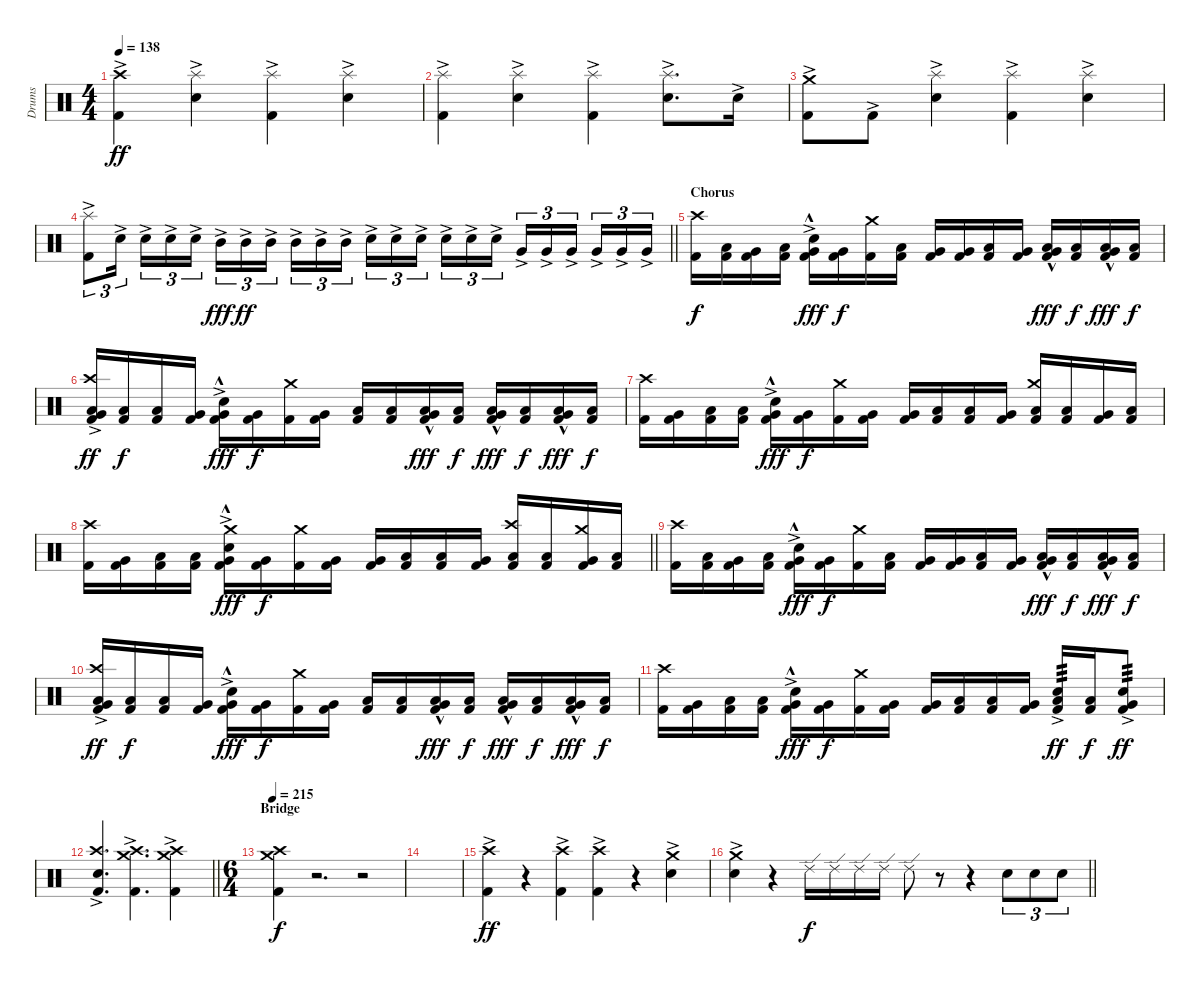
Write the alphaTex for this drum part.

\track ("Drums" "Drums") {instrument percussion}
\staff {score}
\articulation defaults
\ts (4 4)
\section ("" "")
\tempo 138
\clef neutral
\ks c
("Kick (hit) 2"{ac} "Crash high (hit)").4{dy ff} ("Snare (hit) 2"{ac} "Splash (hit)").4 ("Kick (hit) 2"{ac} "Splash (hit)").4 ("Snare (hit) 2"{ac} "Splash (hit)").4 |
("Kick (hit) 2"{ac} "Splash (hit)").4 ("Snare (hit) 2"{ac} "Splash (hit)").4 ("Kick (hit) 2"{ac} "Splash (hit)").4 ("Snare (hit) 2"{ac} "Splash (hit)").8{d} "Snare (hit) 2"{ac}.16 |
("Kick (hit) 2"{ac} "Crash medium (hit)").8 "Kick (hit) 2"{ac}.8 ("Snare (hit) 2"{ac} "Splash (hit)").4 ("Kick (hit) 2"{ac} "Splash (hit)").4 ("Snare (hit) 2"{ac} "Splash (hit)").4 |
\barLineRight lightlight
("Kick (hit) 2"{ac} "Splash (hit)").8{tu (3 2)} "Snare (hit) 2"{ac}.16{tu (3 2) beam splitsecondary} "Snare (hit) 2"{ac}.16{tu (3 2)} "Snare (hit) 2"{ac}.16{tu (3 2)} "Snare (hit) 2"{ac}.16{tu (3 2)} "Mid Tom (hit)"{ac}.16{tu (3 2) dy fff} "Mid Tom (hit)"{ac}.16{tu (3 2) dy ff} "Mid Tom (hit)"{ac}.16{tu (3 2) beam splitsecondary} "Mid Tom (hit)"{ac}.16{tu (3 2)} "Mid Tom (hit)"{ac}.16{tu (3 2)} "Mid Tom (hit)"{ac}.16{tu (3 2)} "Snare (hit) 2"{ac}.16{tu (3 2)} "Snare (hit) 2"{ac}.16{tu (3 2)} "Snare (hit) 2"{ac}.16{tu (3 2) beam splitsecondary} "Snare (hit) 2"{ac}.16{tu (3 2)} "Snare (hit) 2"{ac}.16{tu (3 2)} "Snare (hit) 2"{ac}.16{tu (3 2)} "Very Low Tom (hit)"{ac}.16{tu (3 2)} "Very Low Tom (hit)"{ac}.16{tu (3 2)} "Very Low Tom (hit)"{ac}.16{tu (3 2) beam splitsecondary} "Very Low Tom (hit)"{ac}.16{tu (3 2)} "Very Low Tom (hit)"{ac}.16{tu (3 2)} "Very Low Tom (hit)"{ac}.16{tu (3 2)} |
\section ("" "Chorus")
("Kick (hit) 2" "Crash high (hit)").16{dy f} ("Kick (hit) 2" "Low Floor Tom (hit)").16 ("Kick (hit) 2" "Very Low Tom (hit)").16 ("Kick (hit) 2" "Low Floor Tom (hit)").16 ("Kick (hit) 2" "Snare (hit) 2"{ac} "Very Low Tom (hit)"{hac}).16{dy fff} ("Kick (hit) 2" "Very Low Tom (hit)").16{dy f} ("Kick (hit) 2" "Crash medium (hit)").16 ("Kick (hit) 2" "Low Floor Tom (hit)").16 ("Kick (hit) 2" "Very Low Tom (hit)").16 ("Kick (hit) 2" "Very Low Tom (hit)").16 ("Kick (hit) 2" "Low Floor Tom (hit)").16 ("Kick (hit) 2" "Very Low Tom (hit)").16 ("Kick (hit) 2" "Very Low Tom (hit)"{hac} "Low Tom (hit)"{hac}).16{dy fff} ("Kick (hit) 2" "Low Floor Tom (hit)").16{dy f} ("Kick (hit) 2" "Very Low Tom (hit)"{hac} "Low Tom (hit)"{hac}).16{dy fff} ("Kick (hit) 2" "Low Floor Tom (hit)").16{dy f} |
("Kick (hit) 2" "Very Low Tom (hit)"{ac} "Low Floor Tom (hit)"{ac} "Crash high (hit)").16{dy ff} ("Kick (hit) 2" "Low Floor Tom (hit)").16{dy f} ("Kick (hit) 2" "Low Floor Tom (hit)").16 ("Kick (hit) 2" "Very Low Tom (hit)").16 ("Kick (hit) 2" "Snare (hit) 2"{ac} "Very Low Tom (hit)"{hac}).16{dy fff} ("Kick (hit) 2" "Very Low Tom (hit)").16{dy f} ("Kick (hit) 2" "Crash medium (hit)").16 ("Kick (hit) 2" "Very Low Tom (hit)").16 ("Kick (hit) 2" "Low Floor Tom (hit)").16 ("Kick (hit) 2" "Low Floor Tom (hit)").16 ("Kick (hit) 2" "Very Low Tom (hit)"{hac} "Low Tom (hit)"{hac}).16{dy fff} ("Kick (hit) 2" "Low Floor Tom (hit)").16{dy f} ("Kick (hit) 2" "Very Low Tom (hit)"{hac} "Low Tom (hit)"{hac}).16{dy fff} ("Kick (hit) 2" "Low Floor Tom (hit)").16{dy f} ("Kick (hit) 2" "Very Low Tom (hit)"{hac} "Low Tom (hit)"{hac}).16{dy fff} ("Kick (hit) 2" "Low Floor Tom (hit)").16{dy f} |
("Kick (hit) 2" "Crash high (hit)").16 ("Kick (hit) 2" "Very Low Tom (hit)").16 ("Kick (hit) 2" "Low Floor Tom (hit)").16 ("Kick (hit) 2" "Low Floor Tom (hit)").16 ("Kick (hit) 2" "Snare (hit) 2"{ac} "Very Low Tom (hit)"{hac}).16{dy fff} ("Kick (hit) 2" "Very Low Tom (hit)").16{dy f} ("Kick (hit) 2" "Crash medium (hit)").16 ("Kick (hit) 2" "Very Low Tom (hit)").16 ("Kick (hit) 2" "Very Low Tom (hit)").16 ("Kick (hit) 2" "Low Floor Tom (hit)").16 ("Kick (hit) 2" "Low Floor Tom (hit)").16 ("Kick (hit) 2" "Very Low Tom (hit)").16 ("Kick (hit) 2" "Low Tom (hit)" "Crash medium (hit)").16 ("Kick (hit) 2" "Low Floor Tom (hit)").16 ("Kick (hit) 2" "Very Low Tom (hit)").16 ("Kick (hit) 2" "Low Floor Tom (hit)").16 |
\barLineRight lightlight
("Kick (hit) 2" "Crash high (hit)").16 ("Kick (hit) 2" "Very Low Tom (hit)").16 ("Kick (hit) 2" "Low Floor Tom (hit)").16 ("Kick (hit) 2" "Low Floor Tom (hit)").16 ("Kick (hit) 2" "Snare (hit) 2"{ac} "Very Low Tom (hit)"{hac} "Crash medium (hit)").16{dy fff} ("Kick (hit) 2" "Very Low Tom (hit)").16{dy f} ("Kick (hit) 2" "Crash medium (hit)").16 ("Kick (hit) 2" "Very Low Tom (hit)").16 ("Kick (hit) 2" "Very Low Tom (hit)").16 ("Kick (hit) 2" "Low Floor Tom (hit)").16 ("Kick (hit) 2" "Low Floor Tom (hit)").16 ("Kick (hit) 2" "Very Low Tom (hit)").16 ("Kick (hit) 2" "Low Tom (hit)" "Crash high (hit)").16 ("Kick (hit) 2" "Low Floor Tom (hit)").16 ("Kick (hit) 2" "Very Low Tom (hit)" "Crash medium (hit)").16 ("Kick (hit) 2" "Low Floor Tom (hit)").16 |
\section ("" "")
("Kick (hit) 2" "Crash high (hit)").16 ("Kick (hit) 2" "Low Floor Tom (hit)").16 ("Kick (hit) 2" "Very Low Tom (hit)").16 ("Kick (hit) 2" "Low Floor Tom (hit)").16 ("Kick (hit) 2" "Snare (hit) 2"{ac} "Very Low Tom (hit)"{hac}).16{dy fff} ("Kick (hit) 2" "Very Low Tom (hit)").16{dy f} ("Kick (hit) 2" "Crash medium (hit)").16 ("Kick (hit) 2" "Low Floor Tom (hit)").16 ("Kick (hit) 2" "Very Low Tom (hit)").16 ("Kick (hit) 2" "Very Low Tom (hit)").16 ("Kick (hit) 2" "Low Floor Tom (hit)").16 ("Kick (hit) 2" "Very Low Tom (hit)").16 ("Kick (hit) 2" "Very Low Tom (hit)"{hac} "Low Tom (hit)"{hac}).16{dy fff} ("Kick (hit) 2" "Low Floor Tom (hit)").16{dy f} ("Kick (hit) 2" "Very Low Tom (hit)"{hac} "Low Tom (hit)"{hac}).16{dy fff} ("Kick (hit) 2" "Low Floor Tom (hit)").16{dy f} |
("Kick (hit) 2" "Very Low Tom (hit)"{ac} "Low Floor Tom (hit)"{ac} "Crash high (hit)").16{dy ff} ("Kick (hit) 2" "Low Floor Tom (hit)").16{dy f} ("Kick (hit) 2" "Low Floor Tom (hit)").16 ("Kick (hit) 2" "Very Low Tom (hit)").16 ("Kick (hit) 2" "Snare (hit) 2"{ac} "Very Low Tom (hit)"{hac}).16{dy fff} ("Kick (hit) 2" "Very Low Tom (hit)").16{dy f} ("Kick (hit) 2" "Crash medium (hit)").16 ("Kick (hit) 2" "Very Low Tom (hit)").16 ("Kick (hit) 2" "Low Floor Tom (hit)").16 ("Kick (hit) 2" "Low Floor Tom (hit)").16 ("Kick (hit) 2" "Very Low Tom (hit)"{hac} "Low Tom (hit)"{hac}).16{dy fff} ("Kick (hit) 2" "Low Floor Tom (hit)").16{dy f} ("Kick (hit) 2" "Very Low Tom (hit)"{hac} "Low Tom (hit)"{hac}).16{dy fff} ("Kick (hit) 2" "Low Floor Tom (hit)").16{dy f} ("Kick (hit) 2" "Very Low Tom (hit)"{hac} "Low Tom (hit)"{hac}).16{dy fff} ("Kick (hit) 2" "Low Floor Tom (hit)").16{dy f} |
("Kick (hit) 2" "Crash high (hit)").16 ("Kick (hit) 2" "Very Low Tom (hit)").16 ("Kick (hit) 2" "Low Floor Tom (hit)").16 ("Kick (hit) 2" "Low Floor Tom (hit)").16 ("Kick (hit) 2" "Snare (hit) 2"{ac} "Very Low Tom (hit)"{hac}).16{dy fff} ("Kick (hit) 2" "Very Low Tom (hit)").16{dy f} ("Kick (hit) 2" "Crash medium (hit)").16 ("Kick (hit) 2" "Very Low Tom (hit)").16 ("Kick (hit) 2" "Very Low Tom (hit)").16 ("Kick (hit) 2" "Low Floor Tom (hit)").16 ("Kick (hit) 2" "Low Floor Tom (hit)").16 ("Kick (hit) 2" "Very Low Tom (hit)").16 ("Kick (hit) 2" "Snare (hit) 2"{ac} "Low Tom (hit)").16{tp 3 dy ff} ("Kick (hit) 2" "Low Floor Tom (hit)").16{dy f} ("Kick (hit) 2" "Snare (hit) 2"{ac} "Very Low Tom (hit)").8{tp 3 dy ff} |
\barLineRight lightlight
("Kick (hit) 2" "Snare (hit) 2"{ac} "Crash high (hit)").4{d} ("Kick (hit) 2"{ac} "Crash medium (hit)" "Crash high (hit)").4{d} ("Kick (hit) 2"{ac} "Crash medium (hit)" "Crash high (hit)").4 |
\ts (6 4)
\section ("" "Bridge")
\tempo 215
("Kick (hit) 2" "Crash medium (hit)" "Crash high (hit)").4{dy f} r.2{d} r.2 |
|
("Kick (hit) 2"{ac} "Crash high (hit)").4{dy ff} r.4 ("Kick (hit) 2"{ac} "Crash high (hit)").4 ("Kick (hit) 2"{ac} "Crash high (hit)").4 r.4 ("Snare (hit) 2"{ac} "Crash medium (hit)").4 |
\barLineRight lightlight
("Snare (hit) 2"{ac} "Crash medium (hit)").4 r.4 "Ride (edge) 2".16{dy f} "Ride (edge) 2".16 "Ride (edge) 2".16 "Ride (edge) 2".16 "Ride (edge) 2".8 r.8 r.4 "Snare (hit) 2".8{tu (3 2)} "Snare (hit) 2".8{tu (3 2)} "Snare (hit) 2".8{tu (3 2)}
